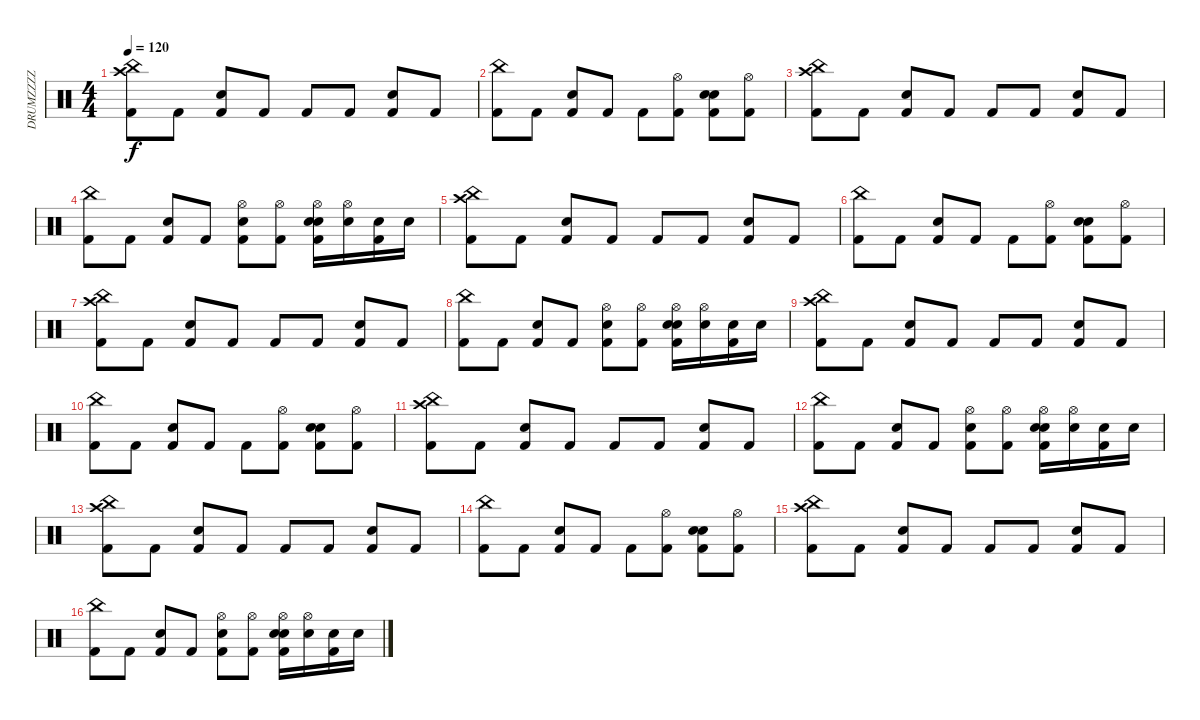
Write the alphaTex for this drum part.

\track ("DRUMZZZZ" "DRUMZZZZ") {instrument percussion}
\staff {score}
\articulation defaults
\ts (4 4)
\tempo 120
\clef neutral
\ks c
("Crash high (hit)" "China (hit)" "Kick (hit) 2").8{dy f} "Kick (hit) 2".8 ("Kick (hit) 2" "Snare (hit) 2").8 "Kick (hit) 2".8 "Kick (hit) 2".8 "Kick (hit) 2".8 ("Kick (hit) 2" "Snare (hit) 2").8 "Kick (hit) 2".8 |
("China (hit)" "Kick (hit) 2").8 "Kick (hit) 2".8 ("Kick (hit) 2" "Snare (hit) 2").8 "Kick (hit) 2".8 "Kick (hit) 2".8 ("Hi-Hat (open)" "Kick (hit) 2").8 ("Kick (hit) 2" "Electric Snare (hit)" "Snare (hit) 2").8 ("Hi-Hat (open)" "Kick (hit) 2").8 |
("Crash high (hit)" "China (hit)" "Kick (hit) 2").8 "Kick (hit) 2".8 ("Kick (hit) 2" "Snare (hit) 2").8 "Kick (hit) 2".8 "Kick (hit) 2".8 "Kick (hit) 2".8 ("Kick (hit) 2" "Snare (hit) 2").8 "Kick (hit) 2".8 |
("China (hit)" "Kick (hit) 2").8 "Kick (hit) 2".8 ("Kick (hit) 2" "Snare (hit) 2").8 "Kick (hit) 2".8 ("Hi-Hat (open)" "Kick (hit) 2" "Electric Snare (hit)").8 ("Hi-Hat (open)" "Kick (hit) 2").8 ("Hi-Hat (open)" "Kick (hit) 2" "Electric Snare (hit)" "Snare (hit) 2").16 ("Hi-Hat (open)" "Electric Snare (hit)").16 ("Kick (hit) 2" "Electric Snare (hit)").16 "Electric Snare (hit)".16 |
("Crash high (hit)" "China (hit)" "Kick (hit) 2").8 "Kick (hit) 2".8 ("Kick (hit) 2" "Snare (hit) 2").8 "Kick (hit) 2".8 "Kick (hit) 2".8 "Kick (hit) 2".8 ("Kick (hit) 2" "Snare (hit) 2").8 "Kick (hit) 2".8 |
("China (hit)" "Kick (hit) 2").8 "Kick (hit) 2".8 ("Kick (hit) 2" "Snare (hit) 2").8 "Kick (hit) 2".8 "Kick (hit) 2".8 ("Hi-Hat (open)" "Kick (hit) 2").8 ("Kick (hit) 2" "Electric Snare (hit)" "Snare (hit) 2").8 ("Hi-Hat (open)" "Kick (hit) 2").8 |
("Crash high (hit)" "China (hit)" "Kick (hit) 2").8 "Kick (hit) 2".8 ("Kick (hit) 2" "Snare (hit) 2").8 "Kick (hit) 2".8 "Kick (hit) 2".8 "Kick (hit) 2".8 ("Kick (hit) 2" "Snare (hit) 2").8 "Kick (hit) 2".8 |
("China (hit)" "Kick (hit) 2").8 "Kick (hit) 2".8 ("Kick (hit) 2" "Snare (hit) 2").8 "Kick (hit) 2".8 ("Hi-Hat (open)" "Kick (hit) 2" "Electric Snare (hit)").8 ("Hi-Hat (open)" "Kick (hit) 2").8 ("Hi-Hat (open)" "Kick (hit) 2" "Electric Snare (hit)" "Snare (hit) 2").16 ("Hi-Hat (open)" "Electric Snare (hit)").16 ("Kick (hit) 2" "Electric Snare (hit)").16 "Electric Snare (hit)".16 |
("Crash high (hit)" "China (hit)" "Kick (hit) 2").8 "Kick (hit) 2".8 ("Kick (hit) 2" "Snare (hit) 2").8 "Kick (hit) 2".8 "Kick (hit) 2".8 "Kick (hit) 2".8 ("Kick (hit) 2" "Snare (hit) 2").8 "Kick (hit) 2".8 |
("China (hit)" "Kick (hit) 2").8 "Kick (hit) 2".8 ("Kick (hit) 2" "Snare (hit) 2").8 "Kick (hit) 2".8 "Kick (hit) 2".8 ("Hi-Hat (open)" "Kick (hit) 2").8 ("Kick (hit) 2" "Electric Snare (hit)" "Snare (hit) 2").8 ("Hi-Hat (open)" "Kick (hit) 2").8 |
("Crash high (hit)" "China (hit)" "Kick (hit) 2").8 "Kick (hit) 2".8 ("Kick (hit) 2" "Snare (hit) 2").8 "Kick (hit) 2".8 "Kick (hit) 2".8 "Kick (hit) 2".8 ("Kick (hit) 2" "Snare (hit) 2").8 "Kick (hit) 2".8 |
("China (hit)" "Kick (hit) 2").8 "Kick (hit) 2".8 ("Kick (hit) 2" "Snare (hit) 2").8 "Kick (hit) 2".8 ("Hi-Hat (open)" "Kick (hit) 2" "Electric Snare (hit)").8 ("Hi-Hat (open)" "Kick (hit) 2").8 ("Hi-Hat (open)" "Kick (hit) 2" "Electric Snare (hit)" "Snare (hit) 2").16 ("Hi-Hat (open)" "Electric Snare (hit)").16 ("Kick (hit) 2" "Electric Snare (hit)").16 "Electric Snare (hit)".16 |
("Crash high (hit)" "China (hit)" "Kick (hit) 2").8 "Kick (hit) 2".8 ("Kick (hit) 2" "Snare (hit) 2").8 "Kick (hit) 2".8 "Kick (hit) 2".8 "Kick (hit) 2".8 ("Kick (hit) 2" "Snare (hit) 2").8 "Kick (hit) 2".8 |
("China (hit)" "Kick (hit) 2").8 "Kick (hit) 2".8 ("Kick (hit) 2" "Snare (hit) 2").8 "Kick (hit) 2".8 "Kick (hit) 2".8 ("Hi-Hat (open)" "Kick (hit) 2").8 ("Kick (hit) 2" "Electric Snare (hit)" "Snare (hit) 2").8 ("Hi-Hat (open)" "Kick (hit) 2").8 |
("Crash high (hit)" "China (hit)" "Kick (hit) 2").8 "Kick (hit) 2".8 ("Kick (hit) 2" "Snare (hit) 2").8 "Kick (hit) 2".8 "Kick (hit) 2".8 "Kick (hit) 2".8 ("Kick (hit) 2" "Snare (hit) 2").8 "Kick (hit) 2".8 |
("China (hit)" "Kick (hit) 2").8 "Kick (hit) 2".8 ("Kick (hit) 2" "Snare (hit) 2").8 "Kick (hit) 2".8 ("Hi-Hat (open)" "Kick (hit) 2" "Electric Snare (hit)").8 ("Hi-Hat (open)" "Kick (hit) 2").8 ("Hi-Hat (open)" "Kick (hit) 2" "Electric Snare (hit)" "Snare (hit) 2").16 ("Hi-Hat (open)" "Electric Snare (hit)").16 ("Kick (hit) 2" "Electric Snare (hit)").16 "Electric Snare (hit)".16
